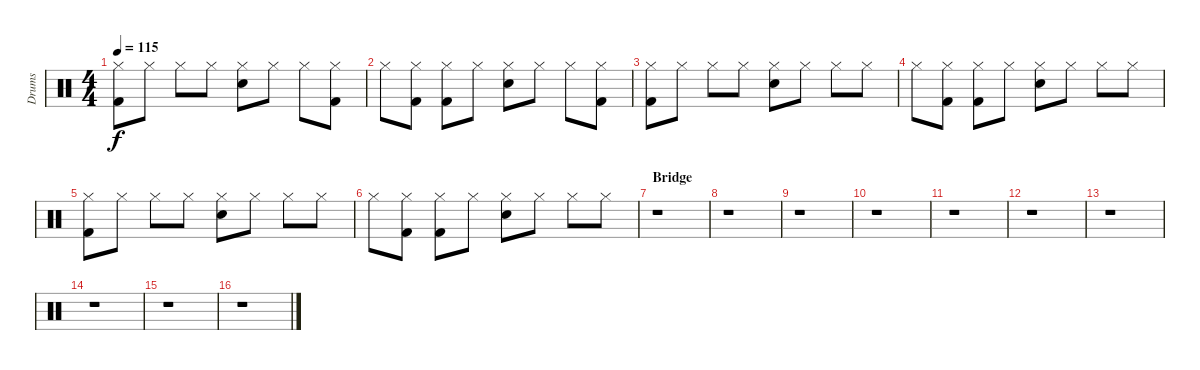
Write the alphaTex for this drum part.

\track ("Drums" "Drums") {instrument percussion}
\staff {score}
\articulation defaults
\ts (4 4)
\tempo 115
\clef neutral
\ks c
("Hi-Hat (closed)" "Kick (hit) 2").8{dy f} "Hi-Hat (closed)".8 "Hi-Hat (closed)".8 "Hi-Hat (closed)".8 ("Hi-Hat (closed)" "Snare (hit) 2").8 "Hi-Hat (closed)".8 "Hi-Hat (closed)".8 ("Hi-Hat (closed)" "Kick (hit) 2").8 |
"Hi-Hat (closed)".8 ("Hi-Hat (closed)" "Kick (hit) 2").8 ("Hi-Hat (closed)" "Kick (hit) 2").8 "Hi-Hat (closed)".8 ("Hi-Hat (closed)" "Snare (hit) 2").8 "Hi-Hat (closed)".8 "Hi-Hat (closed)".8 ("Hi-Hat (closed)" "Kick (hit) 2").8 |
("Hi-Hat (closed)" "Kick (hit) 2").8 "Hi-Hat (closed)".8 "Hi-Hat (closed)".8 "Hi-Hat (closed)".8 ("Hi-Hat (closed)" "Snare (hit) 2").8 "Hi-Hat (closed)".8 "Hi-Hat (closed)".8 "Hi-Hat (closed)".8 |
"Hi-Hat (closed)".8 ("Hi-Hat (closed)" "Kick (hit) 2").8 ("Hi-Hat (closed)" "Kick (hit) 2").8 "Hi-Hat (closed)".8 ("Hi-Hat (closed)" "Snare (hit) 2").8 "Hi-Hat (closed)".8 "Hi-Hat (closed)".8 "Hi-Hat (closed)".8 |
("Hi-Hat (closed)" "Kick (hit) 2").8 "Hi-Hat (closed)".8 "Hi-Hat (closed)".8 "Hi-Hat (closed)".8 ("Hi-Hat (closed)" "Snare (hit) 2").8 "Hi-Hat (closed)".8 "Hi-Hat (closed)".8 "Hi-Hat (closed)".8 |
"Hi-Hat (closed)".8 ("Hi-Hat (closed)" "Kick (hit) 2").8 ("Hi-Hat (closed)" "Kick (hit) 2").8 "Hi-Hat (closed)".8 ("Hi-Hat (closed)" "Snare (hit) 2").8 "Hi-Hat (closed)".8 "Hi-Hat (closed)".8 "Hi-Hat (closed)".8 |
\section ("" "Bridge")
r.1 |
r.1 |
r.1 |
r.1 |
r.1 |
r.1 |
r.1 |
r.1 |
r.1 |
r.1
